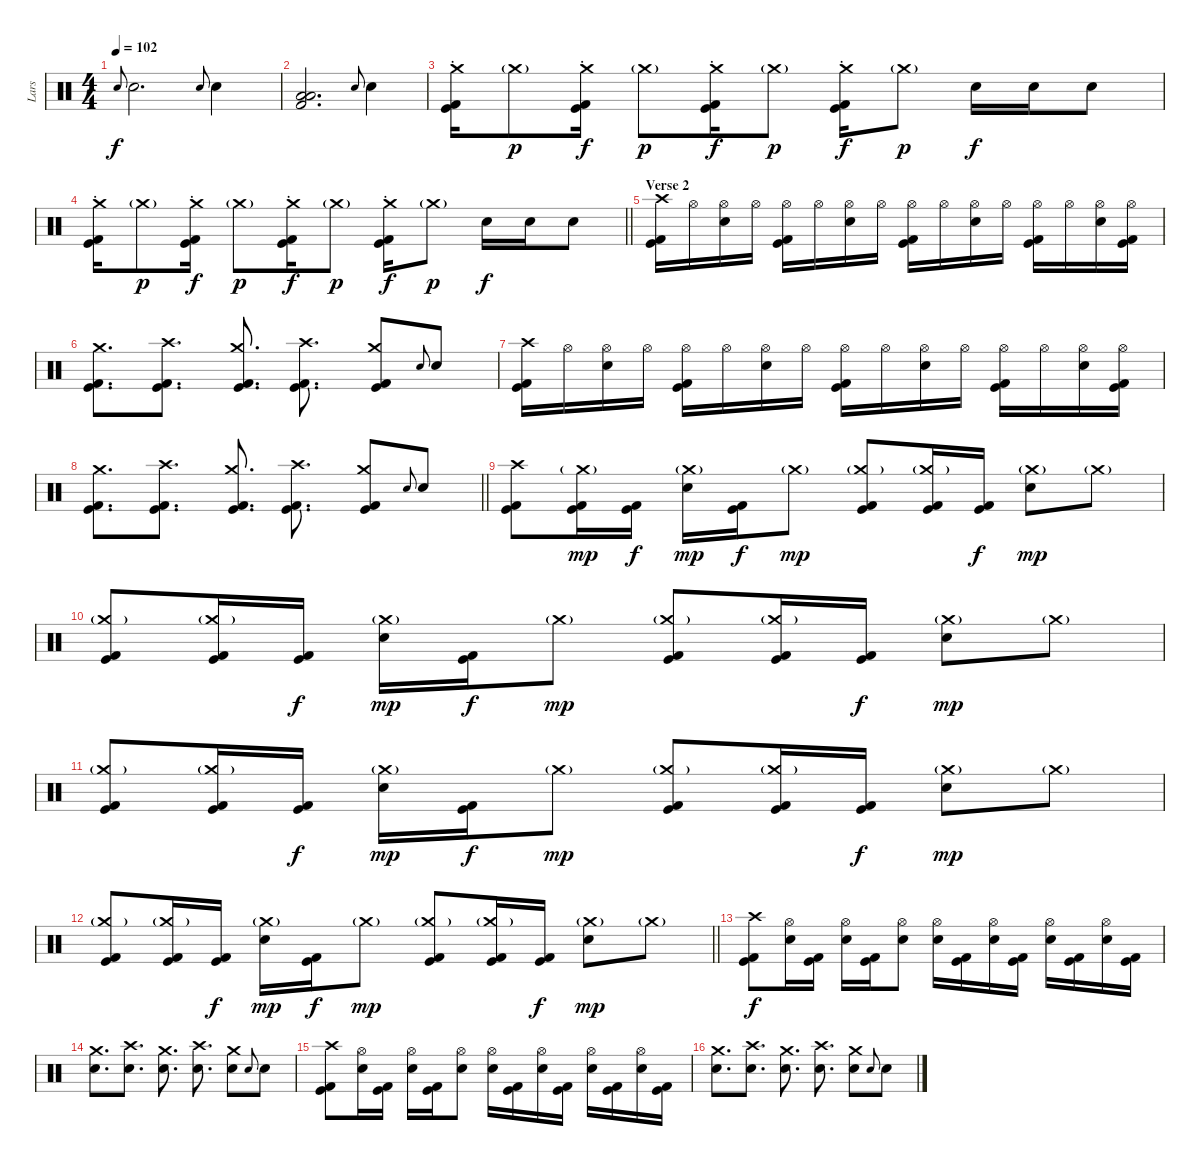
\track ("Lars" "Lars") {instrument percussion}
\staff {score}
\articulation defaults
\ts (4 4)
\section ("" "")
\tempo 102
\clef neutral
\ks c "Electric Snare (hit)".8{gr onbeat dy f} "Electric Snare (hit)".2{d} "Electric Snare (hit)".8{gr onbeat} "Electric Snare (hit)".4
|
("Low Tom (hit)" "Low Floor Tom (hit)" "Kick (hit) 2").2{d} "Electric Snare (hit)".8{gr onbeat} "Electric Snare (hit)".4 |
("Crash medium (hit)"{st} "Kick (hit)" "Kick (hit) 2").16 "Crash medium (hit)"{g}.8{dy p} ("Crash medium (hit)"{st} "Kick (hit)" "Kick (hit) 2").16{dy f} "Crash medium (hit)"{g}.8{dy p} ("Crash medium (hit)"{st} "Kick (hit)" "Kick (hit) 2").16{dy f} "Crash medium (hit)"{g}.8{dy p} ("Crash medium (hit)"{st} "Kick (hit)" "Kick (hit) 2").16{dy f} "Crash medium (hit)"{g}.8{dy p} "Electric Snare (hit)".16{dy f} "Electric Snare (hit)".16 "Electric Snare (hit)".8 |
\barLineRight lightlight
("Crash medium (hit)"{st} "Kick (hit)" "Kick (hit) 2").16 "Crash medium (hit)"{g}.8{dy p} ("Crash medium (hit)"{st} "Kick (hit)" "Kick (hit) 2").16{dy f} "Crash medium (hit)"{g}.8{dy p} ("Crash medium (hit)"{st} "Kick (hit)" "Kick (hit) 2").16{dy f} "Crash medium (hit)"{g}.8{dy p} ("Crash medium (hit)"{st} "Kick (hit)" "Kick (hit) 2").16{dy f} "Crash medium (hit)"{g}.8{dy p} "Electric Snare (hit)".16{dy f} "Electric Snare (hit)".16 "Electric Snare (hit)".8 |
\section ("" "Verse 2")
("Crash high (hit)" "Kick (hit)" "Kick (hit) 2").16 "Hi-Hat (open)".16 ("Hi-Hat (open)" "Electric Snare (hit)").16 "Hi-Hat (open)".16 ("Hi-Hat (open)" "Kick (hit)" "Kick (hit) 2").16 "Hi-Hat (open)".16 ("Hi-Hat (open)" "Electric Snare (hit)").16 "Hi-Hat (open)".16 ("Hi-Hat (open)" "Kick (hit)" "Kick (hit) 2").16 "Hi-Hat (open)".16 ("Hi-Hat (open)" "Electric Snare (hit)").16 "Hi-Hat (open)".16 ("Hi-Hat (open)" "Kick (hit)" "Kick (hit) 2").16 "Hi-Hat (open)".16 ("Hi-Hat (open)" "Electric Snare (hit)").16 ("Hi-Hat (open)" "Kick (hit)" "Kick (hit) 2").16 |
("Crash medium (hit)" "Kick (hit)" "Kick (hit) 2").8{d} ("Crash high (hit)" "Kick (hit)" "Kick (hit) 2").8{d} ("Crash medium (hit)" "Kick (hit)" "Kick (hit) 2").8{d} ("Crash high (hit)" "Kick (hit)" "Kick (hit) 2").8{d} ("Crash medium (hit)" "Kick (hit)" "Kick (hit) 2").8 "Electric Snare (hit)".8{gr onbeat} "Electric Snare (hit)".8 |
("Crash high (hit)" "Kick (hit)" "Kick (hit) 2").16 "Hi-Hat (open)".16 ("Hi-Hat (open)" "Electric Snare (hit)").16 "Hi-Hat (open)".16 ("Hi-Hat (open)" "Kick (hit)" "Kick (hit) 2").16 "Hi-Hat (open)".16 ("Hi-Hat (open)" "Electric Snare (hit)").16 "Hi-Hat (open)".16 ("Hi-Hat (open)" "Kick (hit)" "Kick (hit) 2").16 "Hi-Hat (open)".16 ("Hi-Hat (open)" "Electric Snare (hit)").16 "Hi-Hat (open)".16 ("Hi-Hat (open)" "Kick (hit)" "Kick (hit) 2").16 "Hi-Hat (open)".16 ("Hi-Hat (open)" "Electric Snare (hit)").16 ("Hi-Hat (open)" "Kick (hit)" "Kick (hit) 2").16 |
\barLineRight lightlight
("Crash medium (hit)" "Kick (hit)" "Kick (hit) 2").8{d} ("Crash high (hit)" "Kick (hit)" "Kick (hit) 2").8{d} ("Crash medium (hit)" "Kick (hit)" "Kick (hit) 2").8{d} ("Crash high (hit)" "Kick (hit)" "Kick (hit) 2").8{d} ("Crash medium (hit)" "Kick (hit)" "Kick (hit) 2").8 "Electric Snare (hit)".8{gr onbeat} "Electric Snare (hit)".8 |
\section ("" "")
("Crash high (hit)" "Kick (hit)" "Kick (hit) 2").8 ("Crash medium (hit)"{g} "Kick (hit)" "Kick (hit) 2").16{dy mp} ("Kick (hit)" "Kick (hit) 2").16{dy f} ("Crash medium (hit)"{g} "Electric Snare (hit)").16{dy mp} ("Kick (hit)" "Kick (hit) 2").16{dy f} "Crash medium (hit)"{g}.8{dy mp} ("Crash medium (hit)"{g} "Kick (hit)" "Kick (hit) 2").8 ("Crash medium (hit)"{g} "Kick (hit)" "Kick (hit) 2").16 ("Kick (hit)" "Kick (hit) 2").16{dy f} ("Crash medium (hit)"{g} "Electric Snare (hit)").8{dy mp} "Crash medium (hit)"{g}.8 |
("Crash medium (hit)"{g} "Kick (hit)" "Kick (hit) 2").8 ("Crash medium (hit)"{g} "Kick (hit)" "Kick (hit) 2").16 ("Kick (hit)" "Kick (hit) 2").16{dy f} ("Crash medium (hit)"{g} "Electric Snare (hit)").16{dy mp} ("Kick (hit)" "Kick (hit) 2").16{dy f} "Crash medium (hit)"{g}.8{dy mp} ("Crash medium (hit)"{g} "Kick (hit)" "Kick (hit) 2").8 ("Crash medium (hit)"{g} "Kick (hit)" "Kick (hit) 2").16 ("Kick (hit)" "Kick (hit) 2").16{dy f} ("Crash medium (hit)"{g} "Electric Snare (hit)").8{dy mp} "Crash medium (hit)"{g}.8 |
("Crash medium (hit)"{g} "Kick (hit)" "Kick (hit) 2").8 ("Crash medium (hit)"{g} "Kick (hit)" "Kick (hit) 2").16 ("Kick (hit)" "Kick (hit) 2").16{dy f} ("Crash medium (hit)"{g} "Electric Snare (hit)").16{dy mp} ("Kick (hit)" "Kick (hit) 2").16{dy f} "Crash medium (hit)"{g}.8{dy mp} ("Crash medium (hit)"{g} "Kick (hit)" "Kick (hit) 2").8 ("Crash medium (hit)"{g} "Kick (hit)" "Kick (hit) 2").16 ("Kick (hit)" "Kick (hit) 2").16{dy f} ("Crash medium (hit)"{g} "Electric Snare (hit)").8{dy mp} "Crash medium (hit)"{g}.8 |
\barLineRight lightlight
("Crash medium (hit)"{g} "Kick (hit)" "Kick (hit) 2").8 ("Crash medium (hit)"{g} "Kick (hit)" "Kick (hit) 2").16 ("Kick (hit)" "Kick (hit) 2").16{dy f} ("Crash medium (hit)"{g} "Electric Snare (hit)").16{dy mp} ("Kick (hit)" "Kick (hit) 2").16{dy f} "Crash medium (hit)"{g}.8{dy mp} ("Crash medium (hit)"{g} "Kick (hit)" "Kick (hit) 2").8 ("Crash medium (hit)"{g} "Kick (hit)" "Kick (hit) 2").16 ("Kick (hit)" "Kick (hit) 2").16{dy f} ("Crash medium (hit)"{g} "Electric Snare (hit)").8{dy mp} "Crash medium (hit)"{g}.8 |
\section ("" "")
("Crash high (hit)" "Kick (hit)" "Kick (hit) 2").8{dy f} ("Hi-Hat (open)" "Electric Snare (hit)").16 ("Kick (hit)" "Kick (hit) 2").16 ("Hi-Hat (open)" "Electric Snare (hit)").16 ("Kick (hit)" "Kick (hit) 2").16 ("Hi-Hat (open)" "Electric Snare (hit)").8 ("Hi-Hat (open)" "Electric Snare (hit)").16 ("Kick (hit)" "Kick (hit) 2").16 ("Hi-Hat (open)" "Electric Snare (hit)").16 ("Kick (hit)" "Kick (hit) 2").16 ("Hi-Hat (open)" "Electric Snare (hit)").16 ("Kick (hit)" "Kick (hit) 2").16 ("Hi-Hat (open)" "Electric Snare (hit)").16 ("Kick (hit)" "Kick (hit) 2").16 |
("Crash medium (hit)" "Electric Snare (hit)").8{d} ("Crash high (hit)" "Electric Snare (hit)").8{d} ("Crash medium (hit)" "Electric Snare (hit)").8{d} ("Crash high (hit)" "Electric Snare (hit)").8{d} ("Crash medium (hit)" "Electric Snare (hit)").8 "Electric Snare (hit)".8{gr onbeat} "Electric Snare (hit)".8 |
("Crash high (hit)" "Kick (hit)" "Kick (hit) 2").8 ("Hi-Hat (open)" "Electric Snare (hit)").16 ("Kick (hit)" "Kick (hit) 2").16 ("Hi-Hat (open)" "Electric Snare (hit)").16 ("Kick (hit)" "Kick (hit) 2").16 ("Hi-Hat (open)" "Electric Snare (hit)").8 ("Hi-Hat (open)" "Electric Snare (hit)").16 ("Kick (hit)" "Kick (hit) 2").16 ("Hi-Hat (open)" "Electric Snare (hit)").16 ("Kick (hit)" "Kick (hit) 2").16 ("Hi-Hat (open)" "Electric Snare (hit)").16 ("Kick (hit)" "Kick (hit) 2").16 ("Hi-Hat (open)" "Electric Snare (hit)").16 ("Kick (hit)" "Kick (hit) 2").16 |
("Crash medium (hit)" "Electric Snare (hit)").8{d} ("Crash high (hit)" "Electric Snare (hit)").8{d} ("Crash medium (hit)" "Electric Snare (hit)").8{d} ("Crash high (hit)" "Electric Snare (hit)").8{d} ("Crash medium (hit)" "Electric Snare (hit)").8 "Electric Snare (hit)".8{gr onbeat} "Electric Snare (hit)".8
